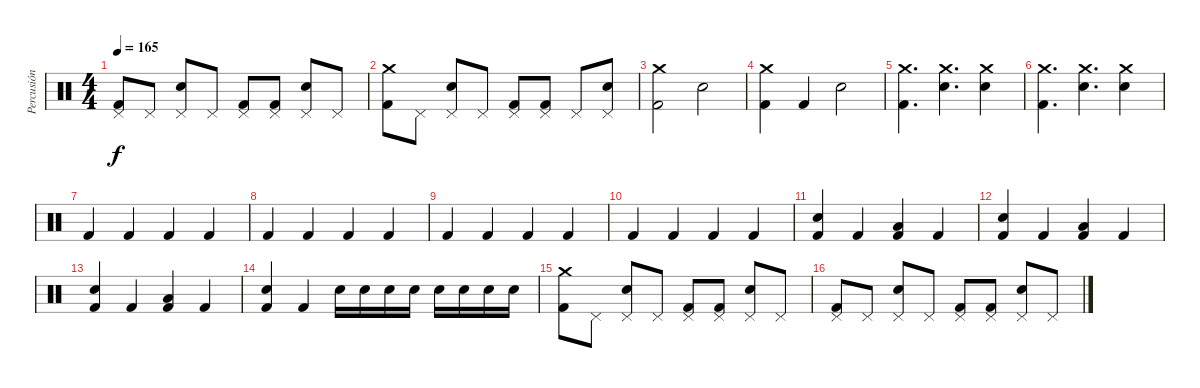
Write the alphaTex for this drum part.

\track ("Percusión" "Percusión") {instrument percussion}
\staff {score}
\articulation defaults
\ts (4 4)
\tempo 165
\clef neutral
\ks c
("Pedal Hi-Hat (hit)" "Kick (hit) 2").8{dy f} "Pedal Hi-Hat (hit)".8 ("Pedal Hi-Hat (hit)" "Electric Snare (hit)").8 "Pedal Hi-Hat (hit)".8 ("Pedal Hi-Hat (hit)" "Kick (hit) 2").8 ("Pedal Hi-Hat (hit)" "Kick (hit) 2").8 ("Pedal Hi-Hat (hit)" "Electric Snare (hit)").8 "Pedal Hi-Hat (hit)".8 |
("Crash medium (hit)" "Kick (hit) 2").8 "Pedal Hi-Hat (hit)".8 ("Pedal Hi-Hat (hit)" "Electric Snare (hit)").8 "Pedal Hi-Hat (hit)".8 ("Pedal Hi-Hat (hit)" "Kick (hit) 2").8 ("Pedal Hi-Hat (hit)" "Kick (hit) 2").8 "Pedal Hi-Hat (hit)".8 ("Pedal Hi-Hat (hit)" "Electric Snare (hit)").8 |
("Crash medium (hit)" "Kick (hit) 2").2 "Electric Snare (hit)".2 |
("Crash medium (hit)" "Kick (hit) 2").4 "Kick (hit) 2".4 "Electric Snare (hit)".2 |
("Crash medium (hit)" "Kick (hit) 2").4{d} ("Crash medium (hit)" "Electric Snare (hit)").4{d} ("Crash medium (hit)" "Electric Snare (hit)").4 |
("Crash medium (hit)" "Kick (hit) 2").4{d} ("Crash medium (hit)" "Electric Snare (hit)").4{d} ("Crash medium (hit)" "Electric Snare (hit)").4 |
"Kick (hit) 2".4 "Kick (hit) 2".4 "Kick (hit) 2".4 "Kick (hit) 2".4 |
"Kick (hit) 2".4 "Kick (hit) 2".4 "Kick (hit) 2".4 "Kick (hit) 2".4 |
"Kick (hit) 2".4 "Kick (hit) 2".4 "Kick (hit) 2".4 "Kick (hit) 2".4 |
"Kick (hit) 2".4 "Kick (hit) 2".4 "Kick (hit) 2".4 "Kick (hit) 2".4 |
("Electric Snare (hit)" "Kick (hit) 2").4 "Kick (hit) 2".4 ("Low Tom (hit)" "Kick (hit) 2").4 "Kick (hit) 2".4 |
("Electric Snare (hit)" "Kick (hit) 2").4 "Kick (hit) 2".4 ("Low Tom (hit)" "Kick (hit) 2").4 "Kick (hit) 2".4 |
("Electric Snare (hit)" "Kick (hit) 2").4 "Kick (hit) 2".4 ("Low Tom (hit)" "Kick (hit) 2").4 "Kick (hit) 2".4 |
("Electric Snare (hit)" "Kick (hit) 2").4 "Kick (hit) 2".4 "Electric Snare (hit)".16 "Electric Snare (hit)".16 "Electric Snare (hit)".16 "Electric Snare (hit)".16 "Electric Snare (hit)".16 "Electric Snare (hit)".16 "Electric Snare (hit)".16 "Electric Snare (hit)".16 |
("Crash medium (hit)" "Kick (hit) 2").8 "Pedal Hi-Hat (hit)".8 ("Pedal Hi-Hat (hit)" "Electric Snare (hit)").8 "Pedal Hi-Hat (hit)".8 ("Pedal Hi-Hat (hit)" "Kick (hit) 2").8 ("Pedal Hi-Hat (hit)" "Kick (hit) 2").8 ("Pedal Hi-Hat (hit)" "Electric Snare (hit)").8 "Pedal Hi-Hat (hit)".8 |
("Pedal Hi-Hat (hit)" "Kick (hit) 2").8 "Pedal Hi-Hat (hit)".8 ("Pedal Hi-Hat (hit)" "Electric Snare (hit)").8 "Pedal Hi-Hat (hit)".8 ("Pedal Hi-Hat (hit)" "Kick (hit) 2").8 ("Pedal Hi-Hat (hit)" "Kick (hit) 2").8 ("Pedal Hi-Hat (hit)" "Electric Snare (hit)").8 "Pedal Hi-Hat (hit)".8
